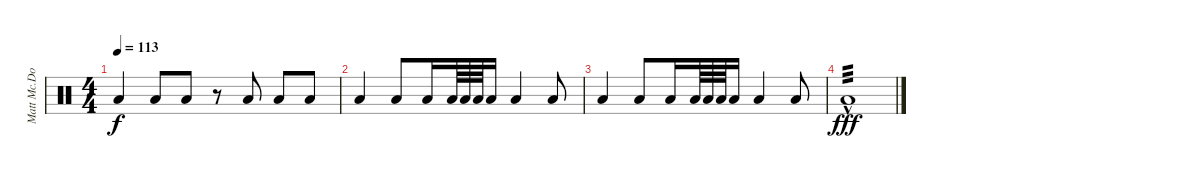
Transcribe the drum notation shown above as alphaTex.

\track ("Matt Mc.Donough" "Matt Mc.Do") {instrument percussion}
\staff {score}
\articulation defaults
\ts (4 4)
\tempo 113
\clef neutral
\ks c "Low Floor Tom (hit)".4{dy f} "Low Floor Tom (hit)".8 "Low Floor Tom (hit)".8
r.8 "Low Floor Tom (hit)".8 "Low Floor Tom (hit)".8 "Low Floor Tom (hit)".8 |
"Low Floor Tom (hit)".4{volume 2} "Low Floor Tom (hit)".8 "Low Floor Tom (hit)".16 "Low Floor Tom (hit)".64 "Low Floor Tom (hit)".64 "Low Floor Tom (hit)".64 "Low Floor Tom (hit)".16 "Low Floor Tom (hit)".4 "Low Floor Tom (hit)".8 |
"Low Floor Tom (hit)".4 "Low Floor Tom (hit)".8 "Low Floor Tom (hit)".16 "Low Floor Tom (hit)".64 "Low Floor Tom (hit)".64 "Low Floor Tom (hit)".64 "Low Floor Tom (hit)".16 "Low Floor Tom (hit)".4 "Low Floor Tom (hit)".8 |
"Low Floor Tom (hit)"{hac}.1{tp 3 dy fff}
